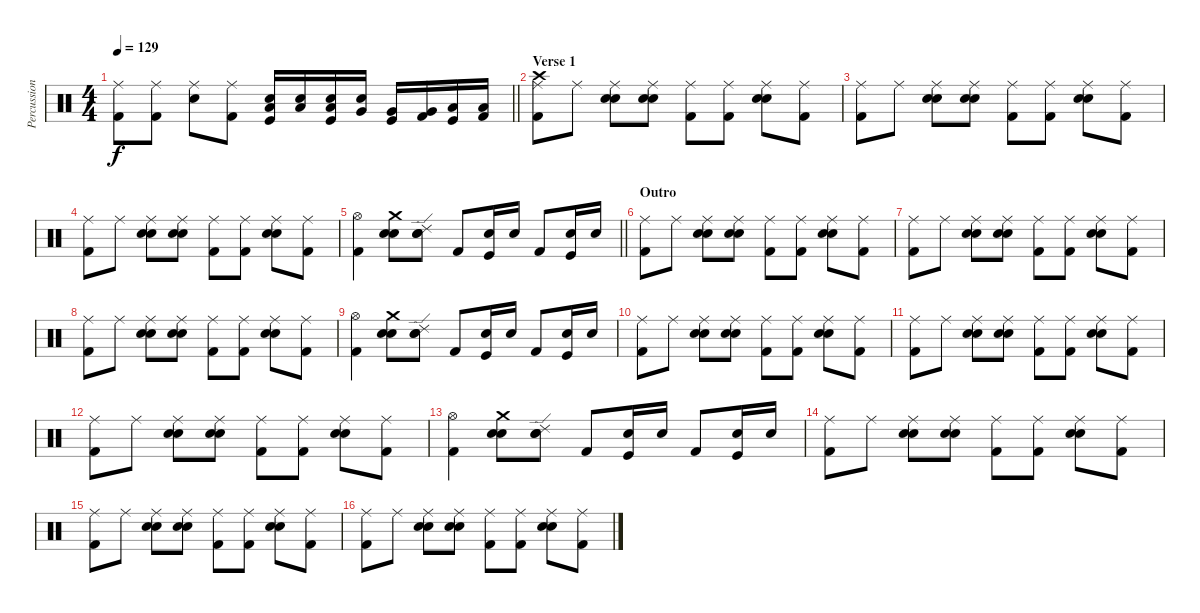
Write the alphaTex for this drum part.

\track ("Percussion" "Percussion") {instrument percussion}
\staff {score}
\articulation defaults
\ts (4 4)
\tempo 129
\clef neutral
\barLineRight lightlight
\ks c
("Ride (middle)" "Kick (hit) 2").8{dy f} ("Ride (middle)" "Kick (hit) 2").8 ("Ride (middle)" "Electric Snare (hit)").8 ("Kick (hit) 2" "Ride (middle)").8 ("Kick (hit)" "Electric Snare (hit)" "Low Tom (hit)").16 ("Low Tom (hit)" "Electric Snare (hit)").16 ("Kick (hit)" "Electric Snare (hit)" "Low Tom (hit)").16 ("Electric Snare (hit)" "Very Low Tom (hit)").16 ("Kick (hit)" "Very Low Tom (hit)").16 ("Kick (hit) 2" "Very Low Tom (hit)").16 ("Kick (hit)" "Low Floor Tom (hit)").16 ("Kick (hit) 2" "Low Floor Tom (hit)").16 |
\section ("" "Verse 1")
("Kick (hit) 2" "Ride (middle)" "Crash high (hit)").8 "Ride (middle)".8 ("Hand Clap (hit)" "Electric Snare (hit)" "Ride (middle)").8 ("Electric Snare (hit)" "Hand Clap (hit)" "Ride (middle)").8 ("Kick (hit) 2" "Ride (middle)").8 ("Kick (hit) 2" "Ride (middle)").8 ("Electric Snare (hit)" "Ride (middle)" "Hand Clap (hit)").8 ("Kick (hit) 2" "Ride (middle)").8 |
("Kick (hit) 2" "Ride (middle)").8 "Ride (middle)".8 ("Hand Clap (hit)" "Electric Snare (hit)" "Ride (middle)").8 ("Electric Snare (hit)" "Hand Clap (hit)" "Ride (middle)").8 ("Kick (hit) 2" "Ride (middle)").8 ("Kick (hit) 2" "Ride (middle)").8 ("Electric Snare (hit)" "Ride (middle)" "Hand Clap (hit)").8 ("Kick (hit) 2" "Ride (middle)").8 |
("Kick (hit) 2" "Ride (middle)").8 "Ride (middle)".8 ("Hand Clap (hit)" "Electric Snare (hit)" "Ride (middle)").8 ("Electric Snare (hit)" "Hand Clap (hit)" "Ride (middle)").8 ("Kick (hit) 2" "Ride (middle)").8 ("Kick (hit) 2" "Ride (middle)").8 ("Electric Snare (hit)" "Ride (middle)" "Hand Clap (hit)").8 ("Kick (hit) 2" "Ride (middle)").8 |
\barLineRight lightlight
("Kick (hit) 2" "Hi-Hat (open)").4 ("Hand Clap (hit)" "Electric Snare (hit)" "Crash medium (hit)").8 ("Electric Snare (hit)" "Hand Clap (hit)" "Ride (edge) 2").8 "Kick (hit) 2".8 ("Electric Snare (hit)" "Kick (hit)").16 "Electric Snare (hit)".16 "Kick (hit) 2".8 ("Electric Snare (hit)" "Kick (hit)").16 "Electric Snare (hit)".16 |
\section ("" "Outro")
("Kick (hit) 2" "Ride (middle)").8 "Ride (middle)".8 ("Hand Clap (hit)" "Electric Snare (hit)" "Ride (middle)").8 ("Electric Snare (hit)" "Hand Clap (hit)" "Ride (middle)").8 ("Kick (hit) 2" "Ride (middle)").8 ("Kick (hit) 2" "Ride (middle)").8 ("Electric Snare (hit)" "Ride (middle)" "Hand Clap (hit)").8 ("Kick (hit) 2" "Ride (middle)").8 |
("Kick (hit) 2" "Ride (middle)").8 "Ride (middle)".8 ("Hand Clap (hit)" "Electric Snare (hit)" "Ride (middle)").8 ("Electric Snare (hit)" "Hand Clap (hit)" "Ride (middle)").8 ("Kick (hit) 2" "Ride (middle)").8 ("Kick (hit) 2" "Ride (middle)").8 ("Electric Snare (hit)" "Ride (middle)" "Hand Clap (hit)").8 ("Kick (hit) 2" "Ride (middle)").8 |
("Kick (hit) 2" "Ride (middle)").8 "Ride (middle)".8 ("Hand Clap (hit)" "Electric Snare (hit)" "Ride (middle)").8 ("Electric Snare (hit)" "Hand Clap (hit)" "Ride (middle)").8 ("Kick (hit) 2" "Ride (middle)").8 ("Kick (hit) 2" "Ride (middle)").8 ("Electric Snare (hit)" "Ride (middle)" "Hand Clap (hit)").8 ("Kick (hit) 2" "Ride (middle)").8 |
("Kick (hit) 2" "Hi-Hat (open)").4 ("Hand Clap (hit)" "Electric Snare (hit)" "Crash medium (hit)").8 ("Electric Snare (hit)" "Hand Clap (hit)" "Ride (edge) 2").8 "Kick (hit) 2".8 ("Electric Snare (hit)" "Kick (hit)").16 "Electric Snare (hit)".16 "Kick (hit) 2".8 ("Electric Snare (hit)" "Kick (hit)").16 "Electric Snare (hit)".16 |
("Kick (hit) 2" "Ride (middle)").8 "Ride (middle)".8 ("Hand Clap (hit)" "Electric Snare (hit)" "Ride (middle)").8 ("Electric Snare (hit)" "Hand Clap (hit)" "Ride (middle)").8 ("Kick (hit) 2" "Ride (middle)").8 ("Kick (hit) 2" "Ride (middle)").8 ("Electric Snare (hit)" "Ride (middle)" "Hand Clap (hit)").8 ("Kick (hit) 2" "Ride (middle)").8 |
("Kick (hit) 2" "Ride (middle)").8 "Ride (middle)".8 ("Hand Clap (hit)" "Electric Snare (hit)" "Ride (middle)").8 ("Electric Snare (hit)" "Hand Clap (hit)" "Ride (middle)").8 ("Kick (hit) 2" "Ride (middle)").8 ("Kick (hit) 2" "Ride (middle)").8 ("Electric Snare (hit)" "Ride (middle)" "Hand Clap (hit)").8 ("Kick (hit) 2" "Ride (middle)").8 |
("Kick (hit) 2" "Ride (middle)").8 "Ride (middle)".8 ("Hand Clap (hit)" "Electric Snare (hit)" "Ride (middle)").8 ("Electric Snare (hit)" "Hand Clap (hit)" "Ride (middle)").8 ("Kick (hit) 2" "Ride (middle)").8 ("Kick (hit) 2" "Ride (middle)").8 ("Electric Snare (hit)" "Ride (middle)" "Hand Clap (hit)").8 ("Kick (hit) 2" "Ride (middle)").8 |
("Kick (hit) 2" "Hi-Hat (open)").4 ("Hand Clap (hit)" "Electric Snare (hit)" "Crash medium (hit)").8 ("Electric Snare (hit)" "Hand Clap (hit)" "Ride (edge) 2").8 "Kick (hit) 2".8 ("Electric Snare (hit)" "Kick (hit)").16 "Electric Snare (hit)".16 "Kick (hit) 2".8 ("Electric Snare (hit)" "Kick (hit)").16 "Electric Snare (hit)".16 |
("Kick (hit) 2" "Ride (middle)").8 "Ride (middle)".8 ("Hand Clap (hit)" "Electric Snare (hit)" "Ride (middle)").8 ("Electric Snare (hit)" "Hand Clap (hit)" "Ride (middle)").8 ("Kick (hit) 2" "Ride (middle)").8 ("Kick (hit) 2" "Ride (middle)").8 ("Electric Snare (hit)" "Ride (middle)" "Hand Clap (hit)").8 ("Kick (hit) 2" "Ride (middle)").8 |
("Kick (hit) 2" "Ride (middle)").8 "Ride (middle)".8 ("Hand Clap (hit)" "Electric Snare (hit)" "Ride (middle)").8 ("Electric Snare (hit)" "Hand Clap (hit)" "Ride (middle)").8 ("Kick (hit) 2" "Ride (middle)").8 ("Kick (hit) 2" "Ride (middle)").8 ("Electric Snare (hit)" "Ride (middle)" "Hand Clap (hit)").8 ("Kick (hit) 2" "Ride (middle)").8 |
("Kick (hit) 2" "Ride (middle)").8 "Ride (middle)".8 ("Hand Clap (hit)" "Electric Snare (hit)" "Ride (middle)").8 ("Electric Snare (hit)" "Hand Clap (hit)" "Ride (middle)").8 ("Kick (hit) 2" "Ride (middle)").8 ("Kick (hit) 2" "Ride (middle)").8 ("Electric Snare (hit)" "Ride (middle)" "Hand Clap (hit)").8 ("Kick (hit) 2" "Ride (middle)").8
